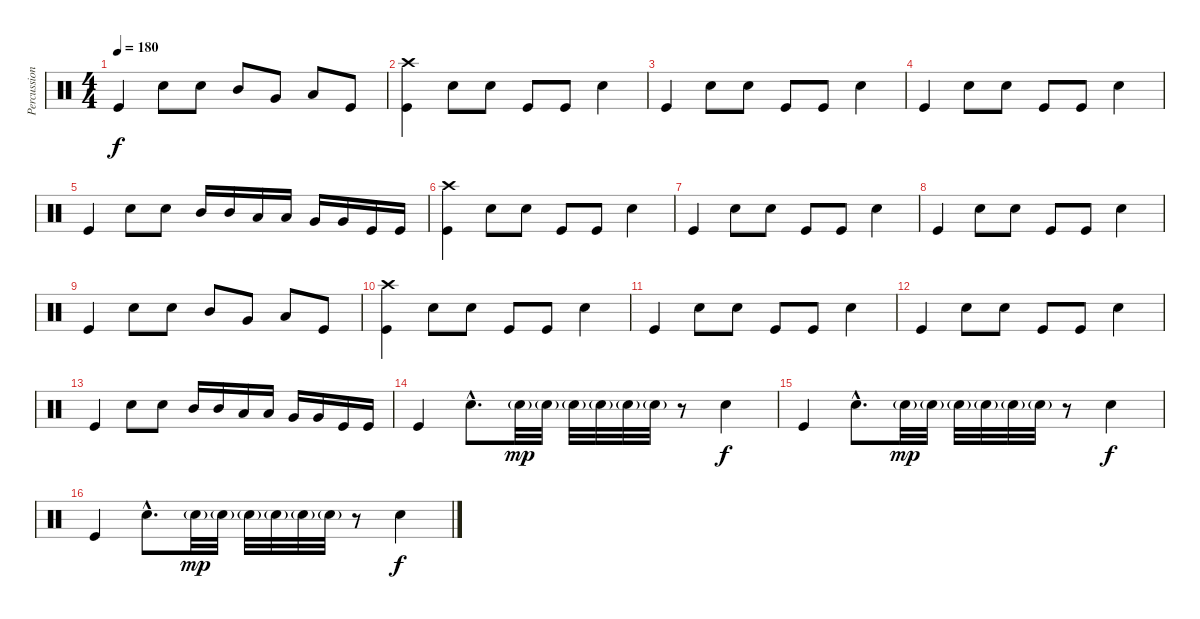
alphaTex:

\track ("Percussion" "Percussion") {instrument percussion}
\staff {score}
\articulation defaults
\ts (4 4)
\tempo 180
\clef neutral
\ks c "Kick (hit)".4{dy f} "Snare (hit) 2".8 "Snare (hit) 2".8 "Mid Tom (hit)".8 "Very Low Tom (hit)".8 "Low Tom (hit)".8 "Kick (hit)".8
|
("Crash high (hit)" "Kick (hit)").4 "Snare (hit) 2".8 "Snare (hit) 2".8 "Kick (hit)".8 "Kick (hit)".8 "Snare (hit) 2".4 |
"Kick (hit)".4 "Snare (hit) 2".8 "Snare (hit) 2".8 "Kick (hit)".8 "Kick (hit)".8 "Snare (hit) 2".4 |
"Kick (hit)".4 "Snare (hit) 2".8 "Snare (hit) 2".8 "Kick (hit)".8 "Kick (hit)".8 "Snare (hit) 2".4 |
"Kick (hit)".4 "Snare (hit) 2".8 "Snare (hit) 2".8 "Mid Tom (hit)".16 "Mid Tom (hit)".16 "Low Tom (hit)".16 "Low Tom (hit)".16 "Very Low Tom (hit)".16 "Very Low Tom (hit)".16 "Kick (hit)".16 "Kick (hit)".16 |
("Crash high (hit)" "Kick (hit)").4 "Snare (hit) 2".8 "Snare (hit) 2".8 "Kick (hit)".8 "Kick (hit)".8 "Snare (hit) 2".4 |
"Kick (hit)".4 "Snare (hit) 2".8 "Snare (hit) 2".8 "Kick (hit)".8 "Kick (hit)".8 "Snare (hit) 2".4 |
"Kick (hit)".4 "Snare (hit) 2".8 "Snare (hit) 2".8 "Kick (hit)".8 "Kick (hit)".8 "Snare (hit) 2".4 |
"Kick (hit)".4 "Snare (hit) 2".8 "Snare (hit) 2".8 "Mid Tom (hit)".8 "Very Low Tom (hit)".8 "Low Tom (hit)".8 "Kick (hit)".8 |
("Crash high (hit)" "Kick (hit)").4 "Snare (hit) 2".8 "Snare (hit) 2".8 "Kick (hit)".8 "Kick (hit)".8 "Snare (hit) 2".4 |
"Kick (hit)".4 "Snare (hit) 2".8 "Snare (hit) 2".8 "Kick (hit)".8 "Kick (hit)".8 "Snare (hit) 2".4 |
"Kick (hit)".4 "Snare (hit) 2".8 "Snare (hit) 2".8 "Kick (hit)".8 "Kick (hit)".8 "Snare (hit) 2".4 |
"Kick (hit)".4 "Snare (hit) 2".8 "Snare (hit) 2".8 "Mid Tom (hit)".16 "Mid Tom (hit)".16 "Low Tom (hit)".16 "Low Tom (hit)".16 "Very Low Tom (hit)".16 "Very Low Tom (hit)".16 "Kick (hit)".16 "Kick (hit)".16 |
"Kick (hit)".4 "Snare (hit) 2"{hac}.8{d} "Snare (hit) 2"{g}.32{dy mp} "Snare (hit) 2"{g}.32 "Snare (hit) 2"{g}.32 "Snare (hit) 2"{g}.32 "Snare (hit) 2"{g}.32 "Snare (hit) 2"{g}.32 r.8 "Snare (hit) 2".4{dy f} |
"Kick (hit)".4 "Snare (hit) 2"{hac}.8{d} "Snare (hit) 2"{g}.32{dy mp} "Snare (hit) 2"{g}.32 "Snare (hit) 2"{g}.32 "Snare (hit) 2"{g}.32 "Snare (hit) 2"{g}.32 "Snare (hit) 2"{g}.32 r.8 "Snare (hit) 2".4{dy f} |
"Kick (hit)".4 "Snare (hit) 2"{hac}.8{d} "Snare (hit) 2"{g}.32{dy mp} "Snare (hit) 2"{g}.32 "Snare (hit) 2"{g}.32 "Snare (hit) 2"{g}.32 "Snare (hit) 2"{g}.32 "Snare (hit) 2"{g}.32 r.8 "Snare (hit) 2".4{dy f}
